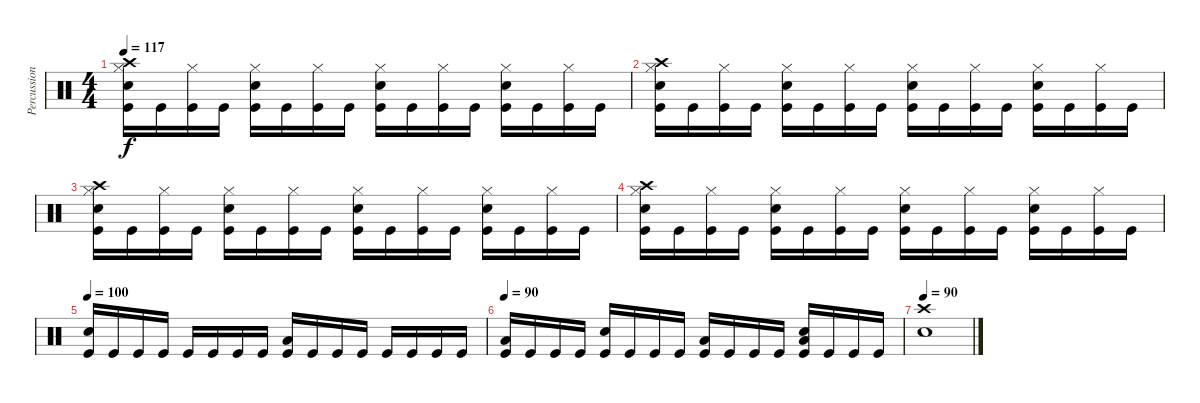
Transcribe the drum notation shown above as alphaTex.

\track ("Percussion" "Percussion") {instrument percussion}
\staff {score}
\articulation defaults
\ts (4 4)
\tempo 117
\clef neutral
\ks c
("Crash high (hit)" "Hi-Hat (closed)" "Snare (hit) 2" "Kick (hit)").16{dy f} "Kick (hit)".16 ("Hi-Hat (closed)" "Kick (hit)").16 "Kick (hit)".16 ("Hi-Hat (closed)" "Snare (hit) 2" "Kick (hit)").16 "Kick (hit)".16 ("Hi-Hat (closed)" "Kick (hit)").16 "Kick (hit)".16 ("Hi-Hat (closed)" "Snare (hit) 2" "Kick (hit)").16 "Kick (hit)".16 ("Hi-Hat (closed)" "Kick (hit)").16 "Kick (hit)".16 ("Hi-Hat (closed)" "Snare (hit) 2" "Kick (hit)").16 "Kick (hit)".16 ("Hi-Hat (closed)" "Kick (hit)").16 "Kick (hit)".16 |
("Crash high (hit)" "Hi-Hat (closed)" "Snare (hit) 2" "Kick (hit)").16 "Kick (hit)".16 ("Hi-Hat (closed)" "Kick (hit)").16 "Kick (hit)".16 ("Hi-Hat (closed)" "Snare (hit) 2" "Kick (hit)").16 "Kick (hit)".16 ("Hi-Hat (closed)" "Kick (hit)").16 "Kick (hit)".16 ("Hi-Hat (closed)" "Snare (hit) 2" "Kick (hit)").16 "Kick (hit)".16 ("Hi-Hat (closed)" "Kick (hit)").16 "Kick (hit)".16 ("Hi-Hat (closed)" "Snare (hit) 2" "Kick (hit)").16 "Kick (hit)".16 ("Hi-Hat (closed)" "Kick (hit)").16 "Kick (hit)".16 |
("Crash high (hit)" "Hi-Hat (closed)" "Snare (hit) 2" "Kick (hit)").16 "Kick (hit)".16 ("Hi-Hat (closed)" "Kick (hit)").16 "Kick (hit)".16 ("Hi-Hat (closed)" "Snare (hit) 2" "Kick (hit)").16 "Kick (hit)".16 ("Hi-Hat (closed)" "Kick (hit)").16 "Kick (hit)".16 ("Hi-Hat (closed)" "Snare (hit) 2" "Kick (hit)").16 "Kick (hit)".16 ("Hi-Hat (closed)" "Kick (hit)").16 "Kick (hit)".16 ("Hi-Hat (closed)" "Snare (hit) 2" "Kick (hit)").16 "Kick (hit)".16 ("Hi-Hat (closed)" "Kick (hit)").16 "Kick (hit)".16 |
("Crash high (hit)" "Hi-Hat (closed)" "Snare (hit) 2" "Kick (hit)").16 "Kick (hit)".16 ("Hi-Hat (closed)" "Kick (hit)").16 "Kick (hit)".16 ("Hi-Hat (closed)" "Snare (hit) 2" "Kick (hit)").16 "Kick (hit)".16 ("Hi-Hat (closed)" "Kick (hit)").16 "Kick (hit)".16 ("Hi-Hat (closed)" "Snare (hit) 2" "Kick (hit)").16 "Kick (hit)".16 ("Hi-Hat (closed)" "Kick (hit)").16 "Kick (hit)".16 ("Hi-Hat (closed)" "Snare (hit) 2" "Kick (hit)").16 "Kick (hit)".16 ("Hi-Hat (closed)" "Kick (hit)").16 "Kick (hit)".16 |
\tempo 100
("Snare (hit) 2" "Kick (hit)").16 "Kick (hit)".16 "Kick (hit)".16 "Kick (hit)".16 "Kick (hit)".16 "Kick (hit)".16 "Kick (hit)".16 "Kick (hit)".16 ("Low Tom (hit)" "Kick (hit)").16 "Kick (hit)".16 "Kick (hit)".16 "Kick (hit)".16 "Kick (hit)".16 "Kick (hit)".16 "Kick (hit)".16 "Kick (hit)".16 |
\tempo 90
("Low Tom (hit)" "Kick (hit)").16 "Kick (hit)".16 "Kick (hit)".16 "Kick (hit)".16 ("Snare (hit) 2" "Kick (hit)").16 "Kick (hit)".16 "Kick (hit)".16 "Kick (hit)".16 ("Low Tom (hit)" "Kick (hit)").16 "Kick (hit)".16 "Kick (hit)".16 "Kick (hit)".16 ("Low Tom (hit)" "Snare (hit) 2" "Kick (hit)").16 "Kick (hit)".16 "Kick (hit)".16 "Kick (hit)".16 |
\tempo 90
("Crash high (hit)" "Snare (hit) 2").1
